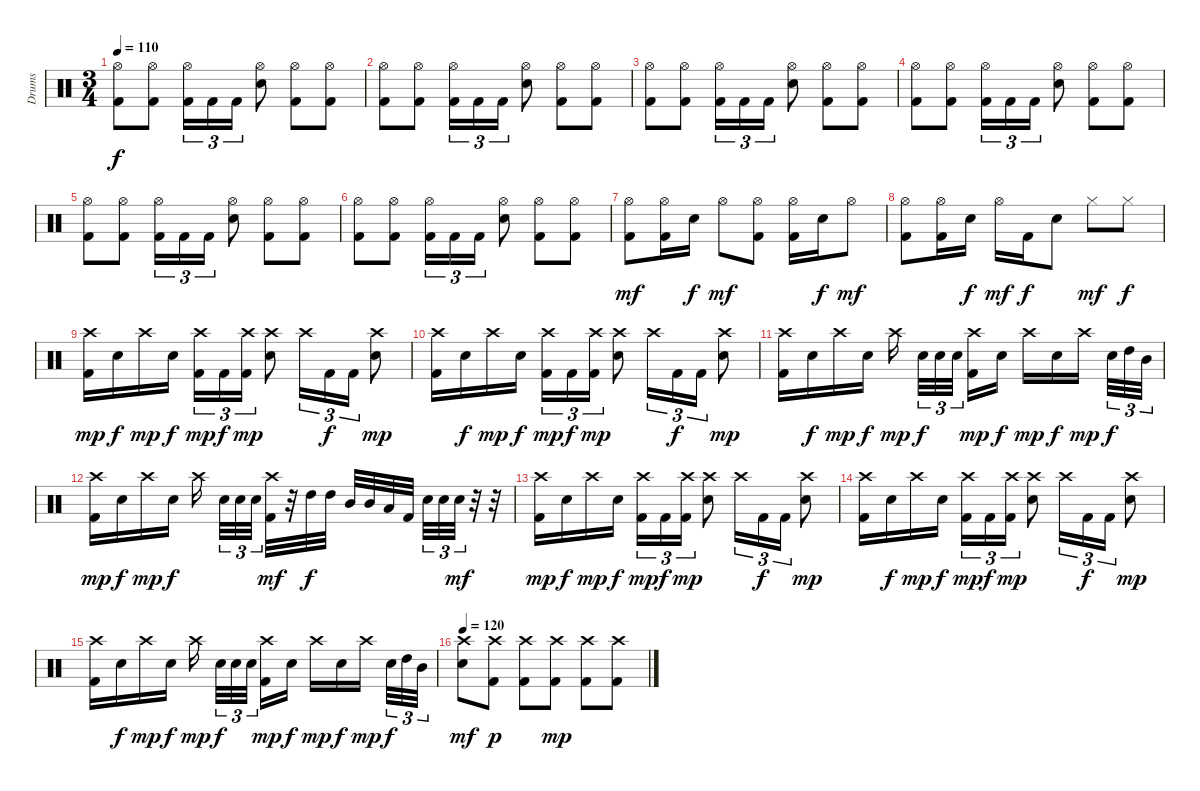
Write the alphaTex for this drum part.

\track ("Drums" "Drums") {instrument percussion}
\staff {score}
\articulation defaults
\ts (3 4)
\tempo 110
\clef neutral
\ks c
("Hi-Hat (open)" "Kick (hit) 2").8{dy f} ("Hi-Hat (open)" "Kick (hit) 2").8 ("Hi-Hat (open)" "Kick (hit) 2").16{tu (3 2)} "Kick (hit) 2".16{tu (3 2)} "Kick (hit) 2".16{tu (3 2)} ("Hi-Hat (open)" "Snare (hit) 2").8 ("Hi-Hat (open)" "Kick (hit) 2").8 ("Hi-Hat (open)" "Kick (hit) 2").8 |
("Hi-Hat (open)" "Kick (hit) 2").8 ("Hi-Hat (open)" "Kick (hit) 2").8 ("Hi-Hat (open)" "Kick (hit) 2").16{tu (3 2)} "Kick (hit) 2".16{tu (3 2)} "Kick (hit) 2".16{tu (3 2)} ("Hi-Hat (open)" "Snare (hit) 2").8 ("Hi-Hat (open)" "Kick (hit) 2").8 ("Hi-Hat (open)" "Kick (hit) 2").8 |
("Hi-Hat (open)" "Kick (hit) 2").8 ("Hi-Hat (open)" "Kick (hit) 2").8 ("Hi-Hat (open)" "Kick (hit) 2").16{tu (3 2)} "Kick (hit) 2".16{tu (3 2)} "Kick (hit) 2".16{tu (3 2)} ("Hi-Hat (open)" "Snare (hit) 2").8 ("Hi-Hat (open)" "Kick (hit) 2").8 ("Hi-Hat (open)" "Kick (hit) 2").8 |
("Hi-Hat (open)" "Kick (hit) 2").8 ("Hi-Hat (open)" "Kick (hit) 2").8 ("Hi-Hat (open)" "Kick (hit) 2").16{tu (3 2)} "Kick (hit) 2".16{tu (3 2)} "Kick (hit) 2".16{tu (3 2)} ("Hi-Hat (open)" "Snare (hit) 2").8 ("Hi-Hat (open)" "Kick (hit) 2").8 ("Hi-Hat (open)" "Kick (hit) 2").8 |
("Hi-Hat (open)" "Kick (hit) 2").8 ("Hi-Hat (open)" "Kick (hit) 2").8 ("Hi-Hat (open)" "Kick (hit) 2").16{tu (3 2)} "Kick (hit) 2".16{tu (3 2)} "Kick (hit) 2".16{tu (3 2)} ("Hi-Hat (open)" "Snare (hit) 2").8 ("Hi-Hat (open)" "Kick (hit) 2").8 ("Hi-Hat (open)" "Kick (hit) 2").8 |
("Hi-Hat (open)" "Kick (hit) 2").8 ("Hi-Hat (open)" "Kick (hit) 2").8 ("Hi-Hat (open)" "Kick (hit) 2").16{tu (3 2)} "Kick (hit) 2".16{tu (3 2)} "Kick (hit) 2".16{tu (3 2)} ("Hi-Hat (open)" "Snare (hit) 2").8 ("Hi-Hat (open)" "Kick (hit) 2").8 ("Hi-Hat (open)" "Kick (hit) 2").8 |
("Hi-Hat (open)" "Kick (hit) 2").8{dy mf} ("Hi-Hat (open)" "Kick (hit) 2").16 "Snare (hit) 2".16{dy f} "Hi-Hat (open)".8{dy mf} ("Hi-Hat (open)" "Kick (hit) 2").8 ("Hi-Hat (open)" "Kick (hit) 2").16 "Snare (hit) 2".16{dy f} "Hi-Hat (open)".8{dy mf} |
("Hi-Hat (open)" "Kick (hit) 2").8 ("Hi-Hat (open)" "Kick (hit) 2").16 "Snare (hit) 2".16{dy f} "Hi-Hat (open)".16{dy mf} "Kick (hit) 2".16{dy f} "Snare (hit) 2".8 "Hi-Hat (closed)".8{dy mf} "Hi-Hat (closed)".8{dy f} |
("Crash high (hit)" "Kick (hit) 2").16{dy mp} "Snare (hit) 2".16{dy f} "Crash high (hit)".16{dy mp} "Snare (hit) 2".16{dy f} ("Crash high (hit)" "Kick (hit) 2").16{tu (3 2) dy mp} "Kick (hit) 2".16{tu (3 2) dy f} ("Crash high (hit)" "Kick (hit) 2").16{tu (3 2) dy mp} ("Crash high (hit)" "Snare (hit) 2").8 "Crash high (hit)".16{tu (3 2)} "Kick (hit) 2".16{tu (3 2) dy f} "Kick (hit) 2".16{tu (3 2)} ("Crash high (hit)" "Snare (hit) 2").8{dy mp} |
("Crash high (hit)" "Kick (hit) 2").16 "Snare (hit) 2".16{dy f} "Crash high (hit)".16{dy mp} "Snare (hit) 2".16{dy f} ("Crash high (hit)" "Kick (hit) 2").16{tu (3 2) dy mp} "Kick (hit) 2".16{tu (3 2) dy f} ("Crash high (hit)" "Kick (hit) 2").16{tu (3 2) dy mp} ("Crash high (hit)" "Snare (hit) 2").8 "Crash high (hit)".16{tu (3 2)} "Kick (hit) 2".16{tu (3 2) dy f} "Kick (hit) 2".16{tu (3 2)} ("Crash high (hit)" "Snare (hit) 2").8{dy mp} |
("Crash high (hit)" "Kick (hit) 2").16 "Snare (hit) 2".16{dy f} "Crash high (hit)".16{dy mp} "Snare (hit) 2".16{dy f} "Crash high (hit)".16{dy mp beam splitsecondary} "Snare (hit) 2".32{tu (3 2) dy f} "Snare (hit) 2".32{tu (3 2)} "Snare (hit) 2".32{tu (3 2) beam splitsecondary} ("Crash high (hit)" "Kick (hit) 2").16{dy mp} "Snare (hit) 2".16{dy f} "Crash high (hit)".16{dy mp} "Snare (hit) 2".16{dy f} "Crash high (hit)".16{dy mp beam splitsecondary} "Snare (hit) 2".32{tu (3 2) dy f} "High Tom (hit)".32{tu (3 2)} "Mid Tom (hit)".32{tu (3 2)} |
("Crash high (hit)" "Kick (hit) 2").16{dy mp} "Snare (hit) 2".16{dy f} "Crash high (hit)".16{dy mp} "Snare (hit) 2".16{dy f} "Crash high (hit)".16{beam splitsecondary} "Snare (hit) 2".32{tu (3 2)} "Snare (hit) 2".32{tu (3 2)} "Snare (hit) 2".32{tu (3 2) beam splitsecondary} ("Crash high (hit)" "Kick (hit) 2").32{dy mf} r.32 "High Tom (hit)".32{dy f} "High Tom (hit)".32 "Mid Tom (hit)".32 "Mid Tom (hit)".32 "Low Tom (hit)".32 "Kick (hit) 2".32{beam splitsecondary} "Snare (hit) 2".32{tu (3 2)} "Snare (hit) 2".32{tu (3 2)} "Snare (hit) 2".32{tu (3 2) dy mf} r.32 r.32 |
("Crash high (hit)" "Kick (hit) 2").16{dy mp} "Snare (hit) 2".16{dy f} "Crash high (hit)".16{dy mp} "Snare (hit) 2".16{dy f} ("Crash high (hit)" "Kick (hit) 2").16{tu (3 2) dy mp} "Kick (hit) 2".16{tu (3 2) dy f} ("Crash high (hit)" "Kick (hit) 2").16{tu (3 2) dy mp} ("Crash high (hit)" "Snare (hit) 2").8 "Crash high (hit)".16{tu (3 2)} "Kick (hit) 2".16{tu (3 2) dy f} "Kick (hit) 2".16{tu (3 2)} ("Crash high (hit)" "Snare (hit) 2").8{dy mp} |
("Crash high (hit)" "Kick (hit) 2").16 "Snare (hit) 2".16{dy f} "Crash high (hit)".16{dy mp} "Snare (hit) 2".16{dy f} ("Crash high (hit)" "Kick (hit) 2").16{tu (3 2) dy mp} "Kick (hit) 2".16{tu (3 2) dy f} ("Crash high (hit)" "Kick (hit) 2").16{tu (3 2) dy mp} ("Crash high (hit)" "Snare (hit) 2").8 "Crash high (hit)".16{tu (3 2)} "Kick (hit) 2".16{tu (3 2) dy f} "Kick (hit) 2".16{tu (3 2)} ("Crash high (hit)" "Snare (hit) 2").8{dy mp} |
("Crash high (hit)" "Kick (hit) 2").16 "Snare (hit) 2".16{dy f} "Crash high (hit)".16{dy mp} "Snare (hit) 2".16{dy f} "Crash high (hit)".16{dy mp beam splitsecondary} "Snare (hit) 2".32{tu (3 2) dy f} "Snare (hit) 2".32{tu (3 2)} "Snare (hit) 2".32{tu (3 2) beam splitsecondary} ("Crash high (hit)" "Kick (hit) 2").16{dy mp} "Snare (hit) 2".16{dy f} "Crash high (hit)".16{dy mp} "Snare (hit) 2".16{dy f} "Crash high (hit)".16{dy mp beam splitsecondary} "Snare (hit) 2".32{tu (3 2) dy f} "High Tom (hit)".32{tu (3 2)} "Mid Tom (hit)".32{tu (3 2)} |
\tempo 120
("Crash high (hit)" "Snare (hit) 2").8{dy mf} ("Crash high (hit)" "Kick (hit) 2").8{dy p} ("Crash high (hit)" "Kick (hit) 2").8 ("Crash high (hit)" "Kick (hit) 2").8{dy mp} ("Crash high (hit)" "Kick (hit) 2").8 ("Crash high (hit)" "Kick (hit) 2").8
